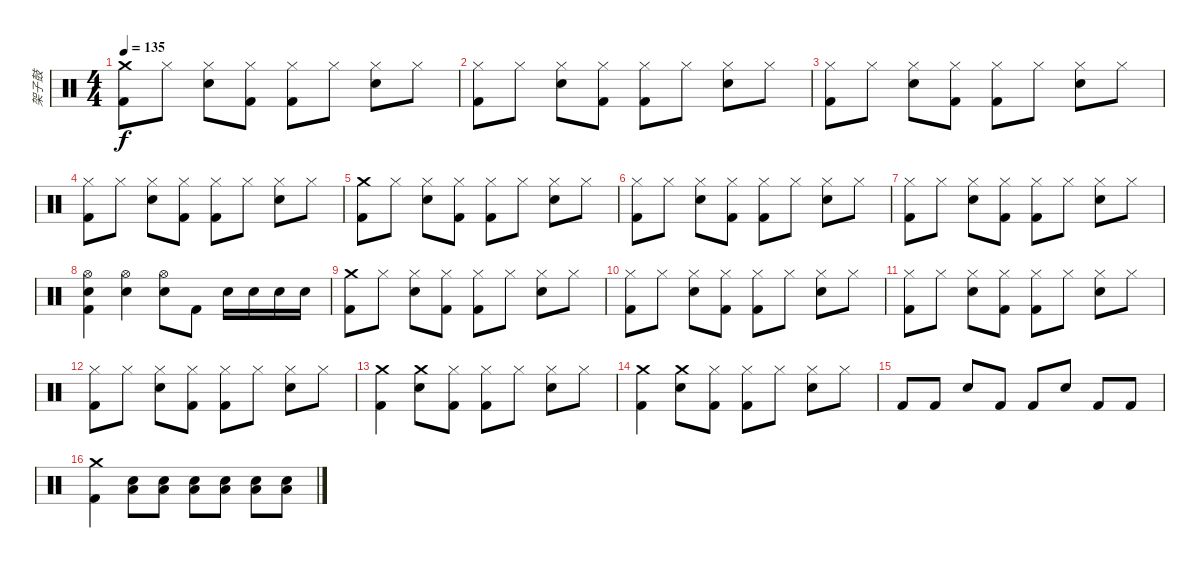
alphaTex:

\track ("架子鼓" "架子鼓") {instrument percussion}
\staff {score}
\articulation defaults
\ts (4 4)
\tempo 135
\clef neutral
\ks c
("Crash medium (hit)" "Kick (hit) 2").8{dy f} "Hi-Hat (closed)".8 ("Hi-Hat (closed)" "Electric Snare (hit)").8 ("Hi-Hat (closed)" "Kick (hit) 2").8 ("Hi-Hat (closed)" "Kick (hit) 2").8 "Hi-Hat (closed)".8 ("Hi-Hat (closed)" "Electric Snare (hit)").8 "Hi-Hat (closed)".8 |
("Hi-Hat (closed)" "Kick (hit) 2").8 "Hi-Hat (closed)".8 ("Hi-Hat (closed)" "Electric Snare (hit)").8 ("Hi-Hat (closed)" "Kick (hit) 2").8 ("Hi-Hat (closed)" "Kick (hit) 2").8 "Hi-Hat (closed)".8 ("Hi-Hat (closed)" "Electric Snare (hit)").8 "Hi-Hat (closed)".8 |
("Hi-Hat (closed)" "Kick (hit) 2").8 "Hi-Hat (closed)".8 ("Hi-Hat (closed)" "Electric Snare (hit)").8 ("Hi-Hat (closed)" "Kick (hit) 2").8 ("Hi-Hat (closed)" "Kick (hit) 2").8 "Hi-Hat (closed)".8 ("Hi-Hat (closed)" "Electric Snare (hit)").8 "Hi-Hat (closed)".8 |
("Hi-Hat (closed)" "Kick (hit) 2").8 "Hi-Hat (closed)".8 ("Hi-Hat (closed)" "Electric Snare (hit)").8 ("Hi-Hat (closed)" "Kick (hit) 2").8 ("Hi-Hat (closed)" "Kick (hit) 2").8 "Hi-Hat (closed)".8 ("Hi-Hat (closed)" "Electric Snare (hit)").8 "Hi-Hat (closed)".8 |
("Crash medium (hit)" "Kick (hit) 2").8 "Hi-Hat (closed)".8 ("Hi-Hat (closed)" "Electric Snare (hit)").8 ("Hi-Hat (closed)" "Kick (hit) 2").8 ("Hi-Hat (closed)" "Kick (hit) 2").8 "Hi-Hat (closed)".8 ("Hi-Hat (closed)" "Electric Snare (hit)").8 "Hi-Hat (closed)".8 |
("Hi-Hat (closed)" "Kick (hit) 2").8 "Hi-Hat (closed)".8 ("Hi-Hat (closed)" "Electric Snare (hit)").8 ("Hi-Hat (closed)" "Kick (hit) 2").8 ("Hi-Hat (closed)" "Kick (hit) 2").8 "Hi-Hat (closed)".8 ("Hi-Hat (closed)" "Electric Snare (hit)").8 "Hi-Hat (closed)".8 |
("Hi-Hat (closed)" "Kick (hit) 2").8 "Hi-Hat (closed)".8 ("Hi-Hat (closed)" "Electric Snare (hit)").8 ("Hi-Hat (closed)" "Kick (hit) 2").8 ("Hi-Hat (closed)" "Kick (hit) 2").8 "Hi-Hat (closed)".8 ("Hi-Hat (closed)" "Electric Snare (hit)").8 "Hi-Hat (closed)".8 |
("Hi-Hat (open)" "Electric Snare (hit)" "Kick (hit) 2").4 ("Hi-Hat (open)" "Electric Snare (hit)").4 ("Hi-Hat (open)" "Electric Snare (hit)").8 "Kick (hit) 2".8 "Electric Snare (hit)".16 "Electric Snare (hit)".16 "Electric Snare (hit)".16 "Electric Snare (hit)".16 |
("Crash medium (hit)" "Kick (hit) 2").8 "Hi-Hat (closed)".8 ("Hi-Hat (closed)" "Electric Snare (hit)").8 ("Hi-Hat (closed)" "Kick (hit) 2").8 ("Hi-Hat (closed)" "Kick (hit) 2").8 "Hi-Hat (closed)".8 ("Hi-Hat (closed)" "Electric Snare (hit)").8 "Hi-Hat (closed)".8 |
("Hi-Hat (closed)" "Kick (hit) 2").8 "Hi-Hat (closed)".8 ("Hi-Hat (closed)" "Electric Snare (hit)").8 ("Hi-Hat (closed)" "Kick (hit) 2").8 ("Hi-Hat (closed)" "Kick (hit) 2").8 "Hi-Hat (closed)".8 ("Hi-Hat (closed)" "Electric Snare (hit)").8 "Hi-Hat (closed)".8 |
("Hi-Hat (closed)" "Kick (hit) 2").8 "Hi-Hat (closed)".8 ("Hi-Hat (closed)" "Electric Snare (hit)").8 ("Hi-Hat (closed)" "Kick (hit) 2").8 ("Hi-Hat (closed)" "Kick (hit) 2").8 "Hi-Hat (closed)".8 ("Hi-Hat (closed)" "Electric Snare (hit)").8 "Hi-Hat (closed)".8 |
("Hi-Hat (closed)" "Kick (hit) 2").8 "Hi-Hat (closed)".8 ("Hi-Hat (closed)" "Electric Snare (hit)").8 ("Hi-Hat (closed)" "Kick (hit) 2").8 ("Hi-Hat (closed)" "Kick (hit) 2").8 "Hi-Hat (closed)".8 ("Hi-Hat (closed)" "Electric Snare (hit)").8 "Hi-Hat (closed)".8 |
("Crash medium (hit)" "Kick (hit) 2").4 ("Crash medium (hit)" "Electric Snare (hit)").8 ("Hi-Hat (closed)" "Kick (hit) 2").8 ("Hi-Hat (closed)" "Kick (hit) 2").8 "Hi-Hat (closed)".8 ("Hi-Hat (closed)" "Electric Snare (hit)").8 "Hi-Hat (closed)".8 |
("Crash medium (hit)" "Kick (hit) 2").4 ("Crash medium (hit)" "Electric Snare (hit)").8 ("Hi-Hat (closed)" "Kick (hit) 2").8 ("Hi-Hat (closed)" "Kick (hit) 2").8 "Hi-Hat (closed)".8 ("Hi-Hat (closed)" "Electric Snare (hit)").8 "Hi-Hat (closed)".8 |
"Kick (hit) 2".8 "Kick (hit) 2".8 "Electric Snare (hit)".8 "Kick (hit) 2".8 "Kick (hit) 2".8 "Electric Snare (hit)".8 "Kick (hit) 2".8 "Kick (hit) 2".8 |
("Crash medium (hit)" "Kick (hit) 2").4 ("Electric Snare (hit)" "Low Tom (hit)").8 ("Electric Snare (hit)" "Low Tom (hit)").8 ("Electric Snare (hit)" "Low Tom (hit)").8 ("Electric Snare (hit)" "Low Tom (hit)").8 ("Electric Snare (hit)" "Low Tom (hit)").8 ("Electric Snare (hit)" "Low Tom (hit)").8
